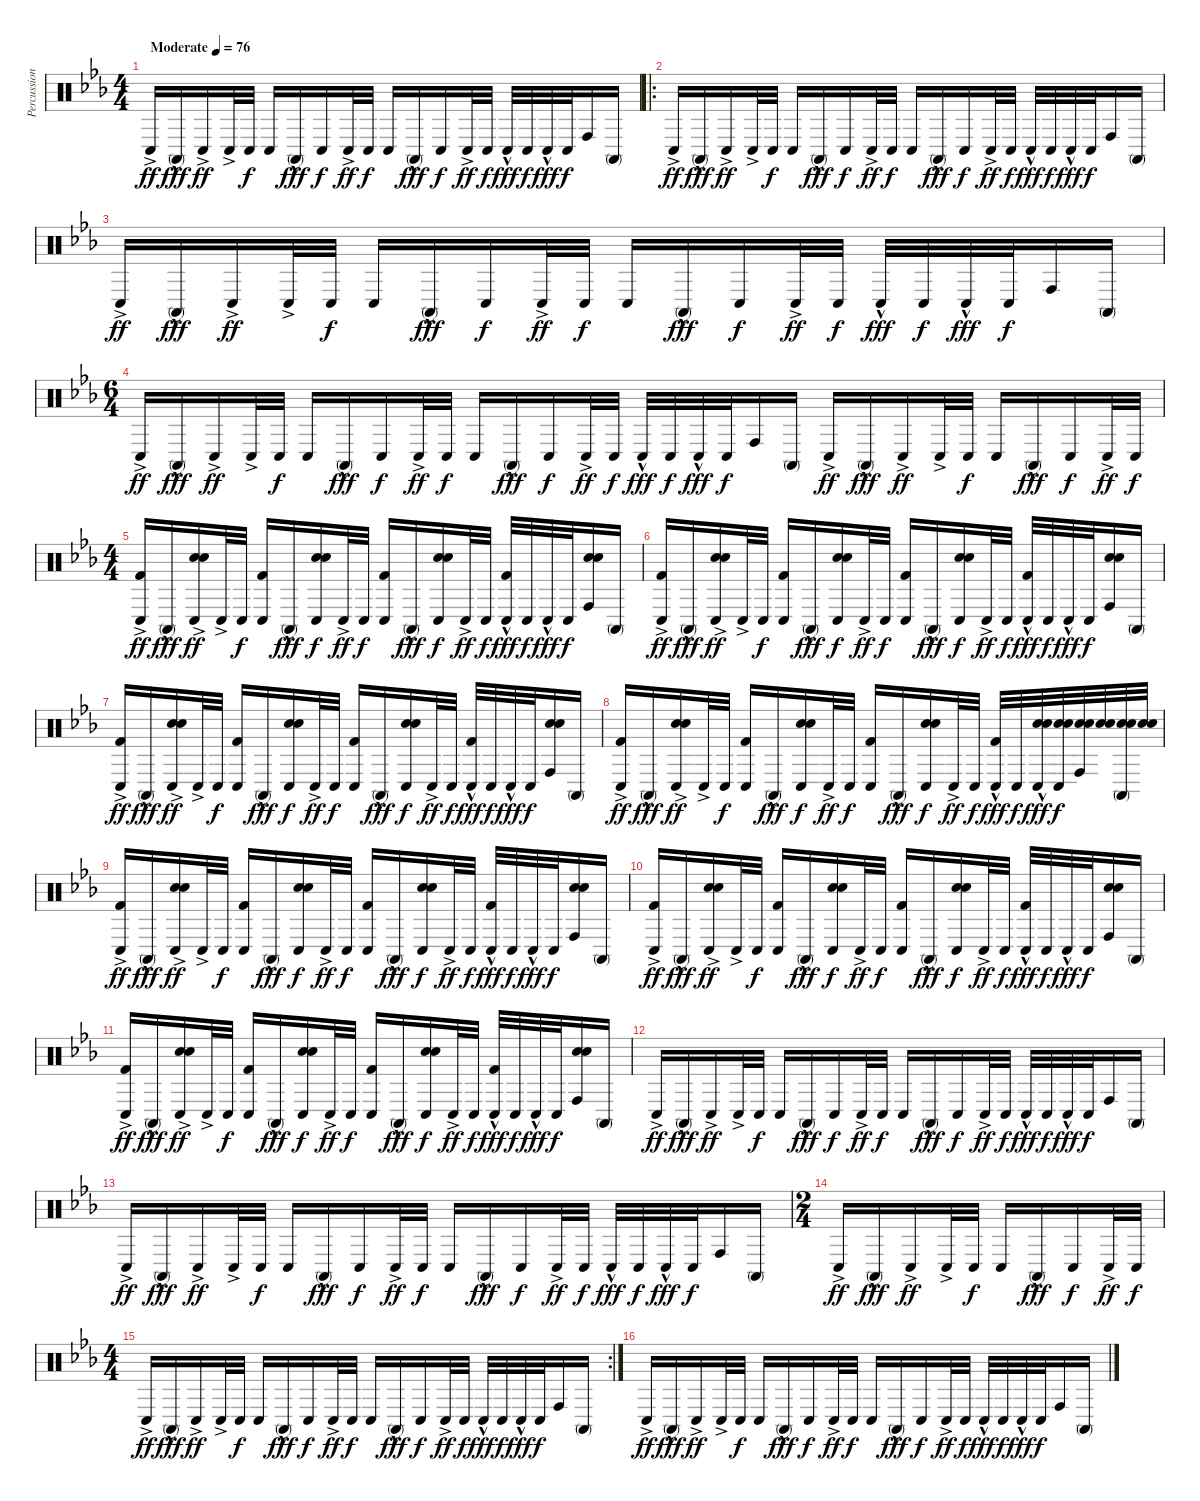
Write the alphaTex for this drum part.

\track ("Percussion" "Percussion") {instrument percussion}
\staff {score}
\articulation defaults
\ts (4 4)
\tempo (76 "Moderate")
\clef neutral
\ks cminor "Conga low (hit)"{ac}.16{dy ff} "Conga high (mute)"{hac}.16{dy fff} "Conga low (hit)"{ac}.16{dy ff} "Conga low (hit)"{ac}.32 "Conga low (hit)".32{dy f} "Conga low (hit)".16 "Conga high (mute)"{hac}.16{dy fff} "Conga low (hit)".16{dy f} "Conga low (hit)"{ac}.32{dy ff} "Conga low (hit)".32{dy f} "Conga low (hit)".16 "Conga high (mute)"{hac}.16{dy fff} "Conga low (hit)".16{dy f} "Conga low (hit)"{ac}.32{dy ff} "Conga low (hit)".32{dy f} "Conga low (hit)"{hac}.32{dy fff} "Conga low (hit)".32{dy f} "Conga low (hit)"{hac}.32{dy fff} "Conga low (hit)".32{dy f} "Conga high (hit)".16 "Conga high (mute)".16
|
\ro "Conga low (hit)"{ac}.16{dy ff} "Conga high (mute)"{hac}.16{dy fff} "Conga low (hit)"{ac}.16{dy ff} "Conga low (hit)"{ac}.32 "Conga low (hit)".32{dy f} "Conga low (hit)".16 "Conga high (mute)"{hac}.16{dy fff} "Conga low (hit)".16{dy f} "Conga low (hit)"{ac}.32{dy ff} "Conga low (hit)".32{dy f} "Conga low (hit)".16 "Conga high (mute)"{hac}.16{dy fff} "Conga low (hit)".16{dy f} "Conga low (hit)"{ac}.32{dy ff} "Conga low (hit)".32{dy f} "Conga low (hit)"{hac}.32{dy fff} "Conga low (hit)".32{dy f} "Conga low (hit)"{hac}.32{dy fff} "Conga low (hit)".32{dy f} "Conga high (hit)".16 "Conga high (mute)".16
|
"Conga low (hit)"{ac}.16{dy ff} "Conga high (mute)"{hac}.16{dy fff} "Conga low (hit)"{ac}.16{dy ff} "Conga low (hit)"{ac}.32 "Conga low (hit)".32{dy f} "Conga low (hit)".16 "Conga high (mute)"{hac}.16{dy fff} "Conga low (hit)".16{dy f} "Conga low (hit)"{ac}.32{dy ff} "Conga low (hit)".32{dy f} "Conga low (hit)".16 "Conga high (mute)"{hac}.16{dy fff} "Conga low (hit)".16{dy f} "Conga low (hit)"{ac}.32{dy ff} "Conga low (hit)".32{dy f} "Conga low (hit)"{hac}.32{dy fff} "Conga low (hit)".32{dy f} "Conga low (hit)"{hac}.32{dy fff} "Conga low (hit)".32{dy f} "Conga high (hit)".16 "Conga high (mute)".16 |
\ts (6 4)
"Conga low (hit)"{ac}.16{dy ff} "Conga high (mute)"{hac}.16{dy fff} "Conga low (hit)"{ac}.16{dy ff} "Conga low (hit)"{ac}.32 "Conga low (hit)".32{dy f} "Conga low (hit)".16 "Conga high (mute)"{hac}.16{dy fff} "Conga low (hit)".16{dy f} "Conga low (hit)"{ac}.32{dy ff} "Conga low (hit)".32{dy f} "Conga low (hit)".16 "Conga high (mute)"{hac}.16{dy fff} "Conga low (hit)".16{dy f} "Conga low (hit)"{ac}.32{dy ff} "Conga low (hit)".32{dy f} "Conga low (hit)"{hac}.32{dy fff} "Conga low (hit)".32{dy f} "Conga low (hit)"{hac}.32{dy fff} "Conga low (hit)".32{dy f} "Conga high (hit)".16 "Conga high (mute)".16 "Conga low (hit)"{ac}.16{dy ff} "Conga high (mute)"{hac}.16{dy fff} "Conga low (hit)"{ac}.16{dy ff} "Conga low (hit)"{ac}.32 "Conga low (hit)".32{dy f} "Conga low (hit)".16 "Conga high (mute)"{hac}.16{dy fff} "Conga low (hit)".16{dy f} "Conga low (hit)"{ac}.32{dy ff} "Conga low (hit)".32{dy f} |
\ts (4 4)
("Conga low (hit)"{ac} "Kick (hit) 2").16{dy ff} "Conga high (mute)"{hac}.16{dy fff} ("Electric Snare (hit)" "Snare (hit) 2" "Conga low (hit)"{ac}).16{dy ff} "Conga low (hit)"{ac}.32 "Conga low (hit)".32{dy f} ("Conga low (hit)" "Kick (hit) 2").16 "Conga high (mute)"{hac}.16{dy fff} ("Electric Snare (hit)" "Snare (hit) 2" "Conga low (hit)").16{dy f} "Conga low (hit)"{ac}.32{dy ff} "Conga low (hit)".32{dy f} ("Conga low (hit)" "Kick (hit) 2").16 "Conga high (mute)"{hac}.16{dy fff} ("Electric Snare (hit)" "Snare (hit) 2" "Conga low (hit)").16{dy f} "Conga low (hit)"{ac}.32{dy ff} "Conga low (hit)".32{dy f} ("Conga low (hit)"{hac} "Kick (hit) 2").32{dy fff} "Conga low (hit)".32{dy f} "Conga low (hit)"{hac}.32{dy fff} "Conga low (hit)".32{dy f} ("Electric Snare (hit)" "Snare (hit) 2" "Conga high (hit)").16 "Conga high (mute)".16 |
("Conga low (hit)"{ac} "Kick (hit) 2").16{dy ff} "Conga high (mute)"{hac}.16{dy fff} ("Electric Snare (hit)" "Snare (hit) 2" "Conga low (hit)"{ac}).16{dy ff} "Conga low (hit)"{ac}.32 "Conga low (hit)".32{dy f} ("Conga low (hit)" "Kick (hit) 2").16 "Conga high (mute)"{hac}.16{dy fff} ("Electric Snare (hit)" "Snare (hit) 2" "Conga low (hit)").16{dy f} "Conga low (hit)"{ac}.32{dy ff} "Conga low (hit)".32{dy f} ("Conga low (hit)" "Kick (hit) 2").16 "Conga high (mute)"{hac}.16{dy fff} ("Electric Snare (hit)" "Snare (hit) 2" "Conga low (hit)").16{dy f} "Conga low (hit)"{ac}.32{dy ff} "Conga low (hit)".32{dy f} ("Conga low (hit)"{hac} "Kick (hit) 2").32{dy fff} "Conga low (hit)".32{dy f} "Conga low (hit)"{hac}.32{dy fff} "Conga low (hit)".32{dy f} ("Electric Snare (hit)" "Snare (hit) 2" "Conga high (hit)").16 "Conga high (mute)".16 |
("Conga low (hit)"{ac} "Kick (hit) 2").16{dy ff} "Conga high (mute)"{hac}.16{dy fff} ("Electric Snare (hit)" "Snare (hit) 2" "Conga low (hit)"{ac}).16{dy ff} "Conga low (hit)"{ac}.32 "Conga low (hit)".32{dy f} ("Conga low (hit)" "Kick (hit) 2").16 "Conga high (mute)"{hac}.16{dy fff} ("Electric Snare (hit)" "Snare (hit) 2" "Conga low (hit)").16{dy f} "Conga low (hit)"{ac}.32{dy ff} "Conga low (hit)".32{dy f} ("Conga low (hit)" "Kick (hit) 2").16 "Conga high (mute)"{hac}.16{dy fff} ("Electric Snare (hit)" "Snare (hit) 2" "Conga low (hit)").16{dy f} "Conga low (hit)"{ac}.32{dy ff} "Conga low (hit)".32{dy f} ("Conga low (hit)"{hac} "Kick (hit) 2").32{dy fff} "Conga low (hit)".32{dy f} "Conga low (hit)"{hac}.32{dy fff} "Conga low (hit)".32{dy f} ("Electric Snare (hit)" "Snare (hit) 2" "Conga high (hit)").16 "Conga high (mute)".16 |
("Conga low (hit)"{ac} "Kick (hit) 2").16{dy ff} "Conga high (mute)"{hac}.16{dy fff} ("Electric Snare (hit)" "Snare (hit) 2" "Conga low (hit)"{ac}).16{dy ff} "Conga low (hit)"{ac}.32 "Conga low (hit)".32{dy f} ("Conga low (hit)" "Kick (hit) 2").16 "Conga high (mute)"{hac}.16{dy fff} ("Electric Snare (hit)" "Snare (hit) 2" "Conga low (hit)").16{dy f} "Conga low (hit)"{ac}.32{dy ff} "Conga low (hit)".32{dy f} ("Conga low (hit)" "Kick (hit) 2").16 "Conga high (mute)"{hac}.16{dy fff} ("Electric Snare (hit)" "Snare (hit) 2" "Conga low (hit)").16{dy f} "Conga low (hit)"{ac}.32{dy ff} "Conga low (hit)".32{dy f} ("Conga low (hit)"{hac} "Kick (hit) 2").32{dy fff} "Conga low (hit)".32{dy f} ("Electric Snare (hit)" "Snare (hit) 2" "Conga low (hit)"{hac}).32{dy fff} ("Electric Snare (hit)" "Snare (hit) 2" "Conga low (hit)").32{dy f} ("Electric Snare (hit)" "Snare (hit) 2" "Conga high (hit)").32 ("Electric Snare (hit)" "Snare (hit) 2").32 ("Electric Snare (hit)" "Snare (hit) 2" "Conga high (mute)").32 ("Electric Snare (hit)" "Snare (hit) 2").32 |
("Conga low (hit)"{ac} "Kick (hit) 2").16{dy ff} "Conga high (mute)"{hac}.16{dy fff} ("Electric Snare (hit)" "Snare (hit) 2" "Conga low (hit)"{ac}).16{dy ff} "Conga low (hit)"{ac}.32 "Conga low (hit)".32{dy f} ("Conga low (hit)" "Kick (hit) 2").16 "Conga high (mute)"{hac}.16{dy fff} ("Electric Snare (hit)" "Snare (hit) 2" "Conga low (hit)").16{dy f} "Conga low (hit)"{ac}.32{dy ff} "Conga low (hit)".32{dy f} ("Conga low (hit)" "Kick (hit) 2").16 "Conga high (mute)"{hac}.16{dy fff} ("Electric Snare (hit)" "Snare (hit) 2" "Conga low (hit)").16{dy f} "Conga low (hit)"{ac}.32{dy ff} "Conga low (hit)".32{dy f} ("Conga low (hit)"{hac} "Kick (hit) 2").32{dy fff} "Conga low (hit)".32{dy f} "Conga low (hit)"{hac}.32{dy fff} "Conga low (hit)".32{dy f} ("Electric Snare (hit)" "Snare (hit) 2" "Conga high (hit)").16 "Conga high (mute)".16 |
("Conga low (hit)"{ac} "Kick (hit) 2").16{dy ff} "Conga high (mute)"{hac}.16{dy fff} ("Electric Snare (hit)" "Snare (hit) 2" "Conga low (hit)"{ac}).16{dy ff} "Conga low (hit)"{ac}.32 "Conga low (hit)".32{dy f} ("Conga low (hit)" "Kick (hit) 2").16 "Conga high (mute)"{hac}.16{dy fff} ("Electric Snare (hit)" "Snare (hit) 2" "Conga low (hit)").16{dy f} "Conga low (hit)"{ac}.32{dy ff} "Conga low (hit)".32{dy f} ("Conga low (hit)" "Kick (hit) 2").16 "Conga high (mute)"{hac}.16{dy fff} ("Electric Snare (hit)" "Snare (hit) 2" "Conga low (hit)").16{dy f} "Conga low (hit)"{ac}.32{dy ff} "Conga low (hit)".32{dy f} ("Conga low (hit)"{hac} "Kick (hit) 2").32{dy fff} "Conga low (hit)".32{dy f} "Conga low (hit)"{hac}.32{dy fff} "Conga low (hit)".32{dy f} ("Electric Snare (hit)" "Snare (hit) 2" "Conga high (hit)").16 "Conga high (mute)".16 |
("Conga low (hit)"{ac} "Kick (hit) 2").16{dy ff} "Conga high (mute)"{hac}.16{dy fff} ("Electric Snare (hit)" "Snare (hit) 2" "Conga low (hit)"{ac}).16{dy ff} "Conga low (hit)"{ac}.32 "Conga low (hit)".32{dy f} ("Conga low (hit)" "Kick (hit) 2").16 "Conga high (mute)"{hac}.16{dy fff} ("Electric Snare (hit)" "Snare (hit) 2" "Conga low (hit)").16{dy f} "Conga low (hit)"{ac}.32{dy ff} "Conga low (hit)".32{dy f} ("Conga low (hit)" "Kick (hit) 2").16 "Conga high (mute)"{hac}.16{dy fff} ("Electric Snare (hit)" "Snare (hit) 2" "Conga low (hit)").16{dy f} "Conga low (hit)"{ac}.32{dy ff} "Conga low (hit)".32{dy f} ("Conga low (hit)"{hac} "Kick (hit) 2").32{dy fff} "Conga low (hit)".32{dy f} "Conga low (hit)"{hac}.32{dy fff} "Conga low (hit)".32{dy f} ("Electric Snare (hit)" "Snare (hit) 2" "Conga high (hit)").16 "Conga high (mute)".16 |
"Conga low (hit)"{ac}.16{dy ff} "Conga high (mute)"{hac}.16{dy fff} "Conga low (hit)"{ac}.16{dy ff} "Conga low (hit)"{ac}.32 "Conga low (hit)".32{dy f} "Conga low (hit)".16 "Conga high (mute)"{hac}.16{dy fff} "Conga low (hit)".16{dy f} "Conga low (hit)"{ac}.32{dy ff} "Conga low (hit)".32{dy f} "Conga low (hit)".16 "Conga high (mute)"{hac}.16{dy fff} "Conga low (hit)".16{dy f} "Conga low (hit)"{ac}.32{dy ff} "Conga low (hit)".32{dy f} "Conga low (hit)"{hac}.32{dy fff} "Conga low (hit)".32{dy f} "Conga low (hit)"{hac}.32{dy fff} "Conga low (hit)".32{dy f} "Conga high (hit)".16 "Conga high (mute)".16 |
"Conga low (hit)"{ac}.16{dy ff} "Conga high (mute)"{hac}.16{dy fff} "Conga low (hit)"{ac}.16{dy ff} "Conga low (hit)"{ac}.32 "Conga low (hit)".32{dy f} "Conga low (hit)".16 "Conga high (mute)"{hac}.16{dy fff} "Conga low (hit)".16{dy f} "Conga low (hit)"{ac}.32{dy ff} "Conga low (hit)".32{dy f} "Conga low (hit)".16 "Conga high (mute)"{hac}.16{dy fff} "Conga low (hit)".16{dy f} "Conga low (hit)"{ac}.32{dy ff} "Conga low (hit)".32{dy f} "Conga low (hit)"{hac}.32{dy fff} "Conga low (hit)".32{dy f} "Conga low (hit)"{hac}.32{dy fff} "Conga low (hit)".32{dy f} "Conga high (hit)".16 "Conga high (mute)".16 |
\ts (2 4)
"Conga low (hit)"{ac}.16{dy ff} "Conga high (mute)"{hac}.16{dy fff} "Conga low (hit)"{ac}.16{dy ff} "Conga low (hit)"{ac}.32 "Conga low (hit)".32{dy f} "Conga low (hit)".16 "Conga high (mute)"{hac}.16{dy fff} "Conga low (hit)".16{dy f} "Conga low (hit)"{ac}.32{dy ff} "Conga low (hit)".32{dy f} |
\rc 2
\ts (4 4)
"Conga low (hit)"{ac}.16{dy ff} "Conga high (mute)"{hac}.16{dy fff} "Conga low (hit)"{ac}.16{dy ff} "Conga low (hit)"{ac}.32 "Conga low (hit)".32{dy f} "Conga low (hit)".16 "Conga high (mute)"{hac}.16{dy fff} "Conga low (hit)".16{dy f} "Conga low (hit)"{ac}.32{dy ff} "Conga low (hit)".32{dy f} "Conga low (hit)".16 "Conga high (mute)"{hac}.16{dy fff} "Conga low (hit)".16{dy f} "Conga low (hit)"{ac}.32{dy ff} "Conga low (hit)".32{dy f} "Conga low (hit)"{hac}.32{dy fff} "Conga low (hit)".32{dy f} "Conga low (hit)"{hac}.32{dy fff} "Conga low (hit)".32{dy f} "Conga high (hit)".16 "Conga high (mute)".16 |
"Conga low (hit)"{ac}.16{dy ff} "Conga high (mute)"{hac}.16{dy fff} "Conga low (hit)"{ac}.16{dy ff} "Conga low (hit)"{ac}.32 "Conga low (hit)".32{dy f} "Conga low (hit)".16 "Conga high (mute)"{hac}.16{dy fff} "Conga low (hit)".16{dy f} "Conga low (hit)"{ac}.32{dy ff} "Conga low (hit)".32{dy f} "Conga low (hit)".16 "Conga high (mute)"{hac}.16{dy fff} "Conga low (hit)".16{dy f} "Conga low (hit)"{ac}.32{dy ff} "Conga low (hit)".32{dy f} "Conga low (hit)"{hac}.32{dy fff} "Conga low (hit)".32{dy f} "Conga low (hit)"{hac}.32{dy fff} "Conga low (hit)".32{dy f} "Conga high (hit)".16 "Conga high (mute)".16
